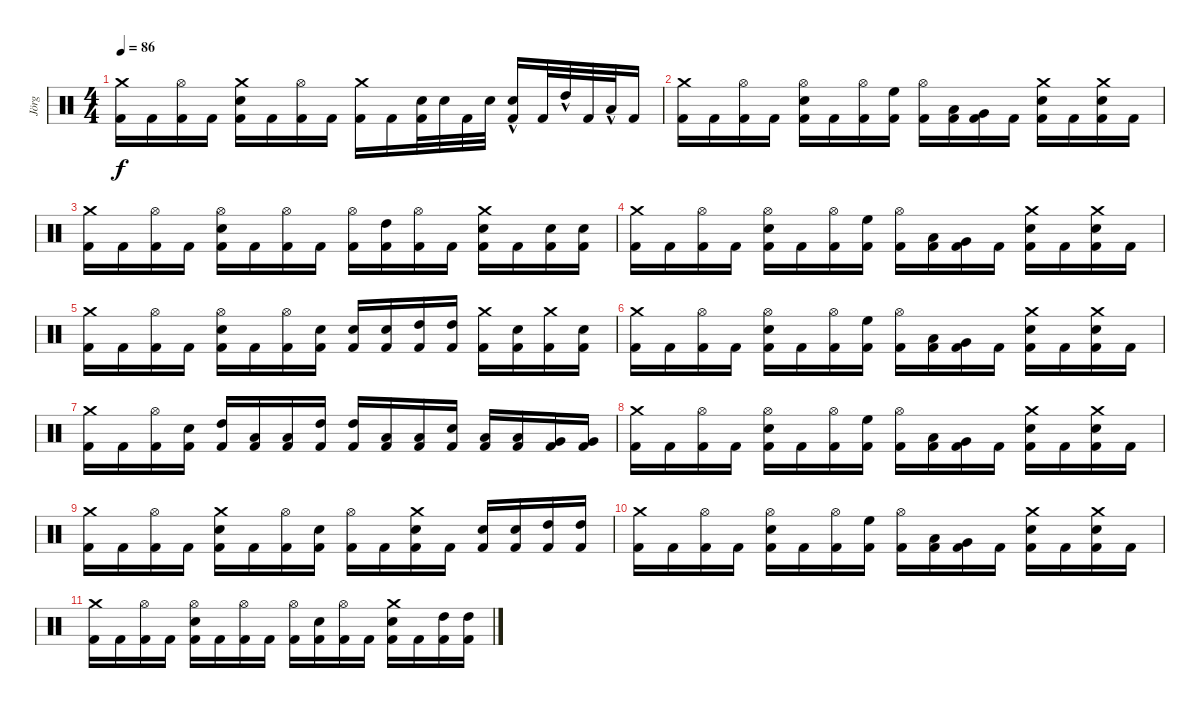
\track ("Jörg" "Jörg") {instrument percussion}
\staff {score}
\articulation defaults
\ts (4 4)
\tempo 86
\clef neutral
\ks c
("Crash medium (hit)" "Kick (hit) 2").16{dy f} "Kick (hit) 2".16 ("Hi-Hat (open)" "Kick (hit) 2").16 "Kick (hit) 2".16 ("Snare (hit) 2" "Crash medium (hit)" "Kick (hit) 2").16 "Kick (hit) 2".16 ("Hi-Hat (open)" "Kick (hit) 2").16 "Kick (hit) 2".16 ("Crash medium (hit)" "Kick (hit) 2").16 "Kick (hit) 2".16 ("Snare (hit) 2" "Kick (hit) 2").32 "Snare (hit) 2".32 "Kick (hit) 2".32 "Snare (hit) 2".32 ("Snare (hit) 2"{hac} "Kick (hit) 2").16 "Kick (hit) 2".32 "High Tom (hit)"{hac}.32 "Kick (hit) 2".32 "Low Tom (hit)"{hac}.32 "Kick (hit) 2".16 |
("Crash medium (hit)" "Kick (hit) 2").16 "Kick (hit) 2".16 ("Hi-Hat (open)" "Kick (hit) 2").16 "Kick (hit) 2".16 ("Hi-Hat (open)" "Snare (hit) 2" "Kick (hit) 2").16 "Kick (hit) 2".16 ("Hi-Hat (open)" "Kick (hit) 2").16 ("High Floor Tom (hit)" "Kick (hit) 2").16 ("Hi-Hat (open)" "Kick (hit) 2").16 ("Low Tom (hit)" "Kick (hit) 2").16 ("Very Low Tom (hit)" "Kick (hit) 2").16 "Kick (hit) 2".16 ("Crash medium (hit)" "Snare (hit) 2" "Kick (hit) 2").16 "Kick (hit) 2".16 ("Crash medium (hit)" "Snare (hit) 2" "Kick (hit) 2").16 "Kick (hit) 2".16 |
("Crash medium (hit)" "Kick (hit) 2").16{volume 16} "Kick (hit) 2".16 ("Hi-Hat (open)" "Kick (hit) 2").16{volume 16} "Kick (hit) 2".16{volume 16} ("Snare (hit) 2" "Hi-Hat (open)" "Kick (hit) 2").16{volume 16} "Kick (hit) 2".16{volume 15} ("Hi-Hat (open)" "Kick (hit) 2").16{volume 15} "Kick (hit) 2".16{volume 15} ("Hi-Hat (open)" "Kick (hit) 2").16{volume 15} ("High Tom (hit)" "Kick (hit) 2").16 ("Hi-Hat (open)" "Kick (hit) 2").16{volume 15} "Kick (hit) 2".16{volume 15} ("Snare (hit) 2" "Crash medium (hit)" "Kick (hit) 2").16{volume 15} "Kick (hit) 2".16{volume 14} ("Snare (hit) 2" "Kick (hit) 2").16{volume 14} ("Snare (hit) 2" "Kick (hit) 2").16{volume 14} |
("Crash medium (hit)" "Kick (hit) 2").16{volume 14} "Kick (hit) 2".16{volume 14} ("Hi-Hat (open)" "Kick (hit) 2").16 "Kick (hit) 2".16{volume 14} ("Hi-Hat (open)" "Snare (hit) 2" "Kick (hit) 2").16{volume 14} "Kick (hit) 2".16{volume 14} ("Hi-Hat (open)" "Kick (hit) 2").16{volume 14} ("High Floor Tom (hit)" "Kick (hit) 2").16{volume 13} ("Hi-Hat (open)" "Kick (hit) 2").16{volume 13} ("Low Tom (hit)" "Kick (hit) 2").16{volume 13} ("Very Low Tom (hit)" "Kick (hit) 2").16 "Kick (hit) 2".16{volume 13} ("Crash medium (hit)" "Snare (hit) 2" "Kick (hit) 2").16{volume 13} "Kick (hit) 2".16{volume 13} ("Crash medium (hit)" "Snare (hit) 2" "Kick (hit) 2").16{volume 13} "Kick (hit) 2".16{volume 12} |
("Crash medium (hit)" "Kick (hit) 2").16{volume 12} "Kick (hit) 2".16{volume 12} ("Hi-Hat (open)" "Kick (hit) 2").16{volume 12} "Kick (hit) 2".16 ("Snare (hit) 2" "Hi-Hat (open)" "Kick (hit) 2").16{volume 12} "Kick (hit) 2".16{volume 12} ("Hi-Hat (open)" "Kick (hit) 2").16{volume 12} ("Snare (hit) 2" "Kick (hit) 2").16{volume 12} ("Snare (hit) 2" "Kick (hit) 2").16{volume 12} ("Snare (hit) 2" "Kick (hit) 2").16{volume 11} ("High Tom (hit)" "Kick (hit) 2").16{volume 11} ("High Tom (hit)" "Kick (hit) 2").16 ("Crash medium (hit)" "Kick (hit) 2").16{volume 11} ("Snare (hit) 2" "Kick (hit) 2").16{volume 11} ("Crash medium (hit)" "Kick (hit) 2").16{volume 11} ("Snare (hit) 2" "Kick (hit) 2").16{volume 11} |
("Crash medium (hit)" "Kick (hit) 2").16{volume 11} "Kick (hit) 2".16{volume 10} ("Hi-Hat (open)" "Kick (hit) 2").16{volume 10} "Kick (hit) 2".16{volume 10} ("Hi-Hat (open)" "Snare (hit) 2" "Kick (hit) 2").16 "Kick (hit) 2".16{volume 10} ("Hi-Hat (open)" "Kick (hit) 2").16{volume 10} ("High Floor Tom (hit)" "Kick (hit) 2").16{volume 10} ("Hi-Hat (open)" "Kick (hit) 2").16{volume 10} ("Low Tom (hit)" "Kick (hit) 2").16{volume 10} ("Very Low Tom (hit)" "Kick (hit) 2").16{volume 10} "Kick (hit) 2".16{volume 9} ("Crash medium (hit)" "Snare (hit) 2" "Kick (hit) 2").16 "Kick (hit) 2".16{volume 9} ("Crash medium (hit)" "Snare (hit) 2" "Kick (hit) 2").16{volume 9} "Kick (hit) 2".16{volume 9} |
("Crash medium (hit)" "Kick (hit) 2").16{volume 9} "Kick (hit) 2".16{volume 9} ("Hi-Hat (open)" "Kick (hit) 2").16{volume 9} ("Snare (hit) 2" "Kick (hit) 2").16{volume 8} ("High Tom (hit)" "Kick (hit) 2").16{volume 8} ("Low Tom (hit)" "Kick (hit) 2").16 ("Low Tom (hit)" "Kick (hit) 2").16{volume 8} ("High Tom (hit)" "Kick (hit) 2").16{volume 8} ("High Tom (hit)" "Kick (hit) 2").16{volume 8} ("Low Tom (hit)" "Kick (hit) 2").16{volume 8} ("Low Tom (hit)" "Kick (hit) 2").16{volume 8} ("Snare (hit) 2" "Kick (hit) 2").16{volume 8} ("Low Tom (hit)" "Kick (hit) 2").16{volume 8} ("Low Tom (hit)" "Kick (hit) 2").16 ("Very Low Tom (hit)" "Kick (hit) 2").16{volume 7} ("Very Low Tom (hit)" "Kick (hit) 2").16{volume 7} |
("Crash medium (hit)" "Kick (hit) 2").16{volume 7} "Kick (hit) 2".16{volume 7} ("Hi-Hat (open)" "Kick (hit) 2").16{volume 7} "Kick (hit) 2".16{volume 7} ("Hi-Hat (open)" "Snare (hit) 2" "Kick (hit) 2").16{volume 7} "Kick (hit) 2".16{volume 6} ("Hi-Hat (open)" "Kick (hit) 2").16 ("High Floor Tom (hit)" "Kick (hit) 2").16{volume 6} ("Hi-Hat (open)" "Kick (hit) 2").16{volume 6} ("Low Tom (hit)" "Kick (hit) 2").16{volume 6} ("Very Low Tom (hit)" "Kick (hit) 2").16{volume 6} "Kick (hit) 2".16{volume 6} ("Crash medium (hit)" "Snare (hit) 2" "Kick (hit) 2").16{volume 6} "Kick (hit) 2".16{volume 6} ("Crash medium (hit)" "Snare (hit) 2" "Kick (hit) 2").16 "Kick (hit) 2".16{volume 6} |
("Crash medium (hit)" "Kick (hit) 2").16{volume 5} "Kick (hit) 2".16{volume 5} ("Hi-Hat (open)" "Kick (hit) 2").16{volume 5} "Kick (hit) 2".16{volume 5} ("Crash medium (hit)" "Snare (hit) 2" "Kick (hit) 2").16{volume 5} "Kick (hit) 2".16{volume 5} ("Hi-Hat (open)" "Kick (hit) 2").16{volume 5} ("Snare (hit) 2" "Kick (hit) 2").16 ("Hi-Hat (open)" "Kick (hit) 2").16{volume 4} "Kick (hit) 2".16{volume 4} ("Crash medium (hit)" "Snare (hit) 2" "Kick (hit) 2").16{volume 4} "Kick (hit) 2".16{volume 4} ("Snare (hit) 2" "Kick (hit) 2").16{volume 4} ("Snare (hit) 2" "Kick (hit) 2").16{volume 4} ("High Tom (hit)" "Kick (hit) 2").16{volume 4} ("High Tom (hit)" "Kick (hit) 2").16 |
("Crash medium (hit)" "Kick (hit) 2").16{volume 4} "Kick (hit) 2".16{volume 4} ("Hi-Hat (open)" "Kick (hit) 2").16{volume 3} "Kick (hit) 2".16{volume 3} ("Hi-Hat (open)" "Snare (hit) 2" "Kick (hit) 2").16{volume 3} "Kick (hit) 2".16{volume 3} ("Hi-Hat (open)" "Kick (hit) 2").16{volume 3} ("High Floor Tom (hit)" "Kick (hit) 2").16{volume 3} ("Hi-Hat (open)" "Kick (hit) 2").16 ("Low Tom (hit)" "Kick (hit) 2").16{volume 3} ("Very Low Tom (hit)" "Kick (hit) 2").16{volume 2} "Kick (hit) 2".16{volume 2} ("Crash medium (hit)" "Snare (hit) 2" "Kick (hit) 2").16{volume 2} "Kick (hit) 2".16{volume 2} ("Crash medium (hit)" "Snare (hit) 2" "Kick (hit) 2").16{volume 2} "Kick (hit) 2".16{volume 2} |
("Crash medium (hit)" "Kick (hit) 2").16 "Kick (hit) 2".16{volume 2} ("Hi-Hat (open)" "Kick (hit) 2").16{volume 2} "Kick (hit) 2".16{volume 2} ("Snare (hit) 2" "Hi-Hat (open)" "Kick (hit) 2").16{volume 1} "Kick (hit) 2".16{volume 1} ("Hi-Hat (open)" "Kick (hit) 2").16{volume 1} "Kick (hit) 2".16{volume 1} ("Hi-Hat (open)" "Kick (hit) 2").16{volume 1} ("Snare (hit) 2" "Kick (hit) 2").16 ("Hi-Hat (open)" "Kick (hit) 2").16{volume 1} "Kick (hit) 2".16{volume 1} ("Snare (hit) 2" "Crash medium (hit)" "Kick (hit) 2").16{volume 0} "Kick (hit) 2".16{volume 0} ("High Tom (hit)" "Kick (hit) 2").16{volume 0} ("High Tom (hit)" "Kick (hit) 2").16{volume 0}
